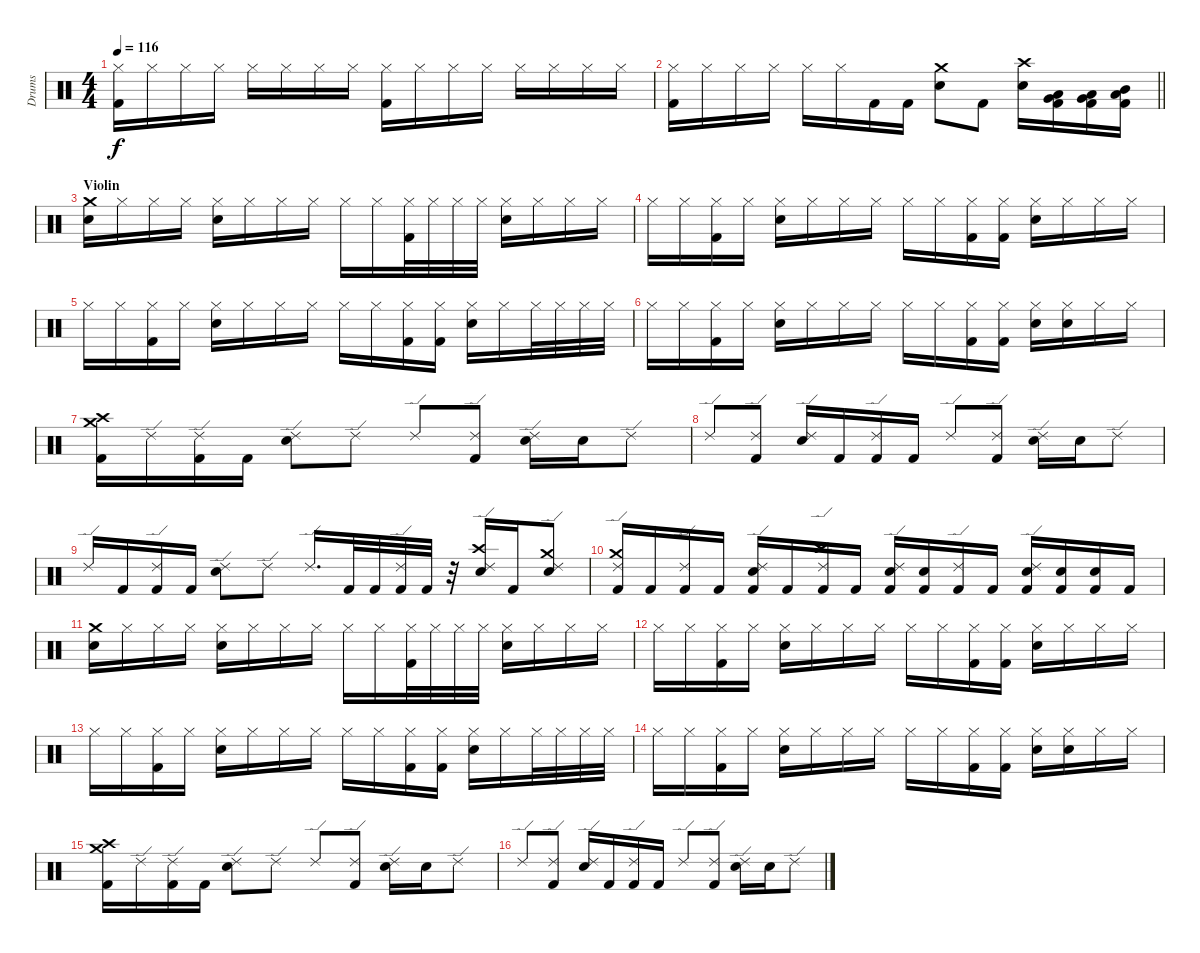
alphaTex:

\track ("Drums" "Drums") {instrument percussion}
\staff {score}
\articulation defaults
\ts (4 4)
\tempo 116
\clef neutral
\ks c
("Hi-Hat (closed)" "Kick (hit) 2").16{dy f} "Hi-Hat (closed)".16 "Hi-Hat (closed)".16 "Hi-Hat (closed)".16 "Hi-Hat (closed)".16 "Hi-Hat (closed)".16 "Hi-Hat (closed)".16 "Hi-Hat (closed)".16 ("Hi-Hat (closed)" "Kick (hit) 2").16 "Hi-Hat (closed)".16 "Hi-Hat (closed)".16 "Hi-Hat (closed)".16 "Hi-Hat (closed)".16 "Hi-Hat (closed)".16 "Hi-Hat (closed)".16 "Hi-Hat (closed)".16 |
\barLineRight lightlight
("Hi-Hat (closed)" "Kick (hit) 2").16 "Hi-Hat (closed)".16 "Hi-Hat (closed)".16 "Hi-Hat (closed)".16 "Hi-Hat (closed)".16 "Hi-Hat (closed)".16 "Kick (hit) 2".16 "Kick (hit) 2".16 ("Snare (hit) 2" "Crash medium (hit)").8 "Kick (hit) 2".8 ("Snare (hit) 2" "Crash high (hit)").16 ("Kick (hit) 2" "Very Low Tom (hit)" "Low Floor Tom (hit)").16 ("Kick (hit) 2" "Low Tom (hit)" "Very Low Tom (hit)").16 ("Kick (hit) 2" "Mid Tom (hit)" "Low Tom (hit)").16 |
\section ("" "Violin")
("Snare (hit) 2" "Crash medium (hit)").16 "Hi-Hat (closed)".16 "Hi-Hat (closed)".16 "Hi-Hat (closed)".16 ("Hi-Hat (closed)" "Snare (hit) 2").16 "Hi-Hat (closed)".16 "Hi-Hat (closed)".16 "Hi-Hat (closed)".16 "Hi-Hat (closed)".16 "Hi-Hat (closed)".16 ("Hi-Hat (closed)" "Kick (hit) 2").32 "Hi-Hat (closed)".32 "Hi-Hat (closed)".32 "Hi-Hat (closed)".32 ("Hi-Hat (closed)" "Snare (hit) 2").16 "Hi-Hat (closed)".16 "Hi-Hat (closed)".16 "Hi-Hat (closed)".16 |
"Hi-Hat (closed)".16 "Hi-Hat (closed)".16 ("Hi-Hat (closed)" "Kick (hit) 2").16 "Hi-Hat (closed)".16 ("Hi-Hat (closed)" "Snare (hit) 2").16 "Hi-Hat (closed)".16 "Hi-Hat (closed)".16 "Hi-Hat (closed)".16 "Hi-Hat (closed)".16 "Hi-Hat (closed)".16 ("Hi-Hat (closed)" "Kick (hit) 2").16 ("Hi-Hat (closed)" "Kick (hit) 2").16 ("Hi-Hat (closed)" "Snare (hit) 2").16 "Hi-Hat (closed)".16 "Hi-Hat (closed)".16 "Hi-Hat (closed)".16 |
"Hi-Hat (closed)".16 "Hi-Hat (closed)".16 ("Hi-Hat (closed)" "Kick (hit) 2").16 "Hi-Hat (closed)".16 ("Hi-Hat (closed)" "Snare (hit) 2").16 "Hi-Hat (closed)".16 "Hi-Hat (closed)".16 "Hi-Hat (closed)".16 "Hi-Hat (closed)".16 "Hi-Hat (closed)".16 ("Hi-Hat (closed)" "Kick (hit) 2").16 ("Hi-Hat (closed)" "Kick (hit) 2").16 ("Hi-Hat (closed)" "Snare (hit) 2").16 "Hi-Hat (closed)".16 "Hi-Hat (closed)".32 "Hi-Hat (closed)".32 "Hi-Hat (closed)".32 "Hi-Hat (closed)".32 |
"Hi-Hat (closed)".16 "Hi-Hat (closed)".16 ("Hi-Hat (closed)" "Kick (hit) 2").16 "Hi-Hat (closed)".16 ("Hi-Hat (closed)" "Snare (hit) 2").16 "Hi-Hat (closed)".16 "Hi-Hat (closed)".16 "Hi-Hat (closed)".16 "Hi-Hat (closed)".16 "Hi-Hat (closed)".16 ("Hi-Hat (closed)" "Kick (hit) 2").16 ("Hi-Hat (closed)" "Kick (hit) 2").16 ("Hi-Hat (closed)" "Snare (hit) 2").16 ("Hi-Hat (closed)" "Snare (hit) 2").16 "Hi-Hat (closed)".16 "Hi-Hat (closed)".16 |
("Kick (hit) 2" "Crash medium (hit)" "Crash high (hit)").16 "Ride (edge) 2".16 ("Ride (edge) 2" "Kick (hit) 2").16 "Kick (hit) 2".16 ("Ride (edge) 2" "Snare (hit) 2").8 "Ride (edge) 2".8 "Ride (edge) 2".8 ("Ride (edge) 2" "Kick (hit) 2").8 ("Ride (edge) 2" "Snare (hit) 2").16 "Snare (hit) 2".16 "Ride (edge) 2".8 |
"Ride (edge) 2".8 ("Ride (edge) 2" "Kick (hit) 2").8 ("Ride (edge) 2" "Snare (hit) 2").16 "Kick (hit) 2".16 ("Ride (edge) 2" "Kick (hit) 2").16 "Kick (hit) 2".16 "Ride (edge) 2".8 ("Ride (edge) 2" "Kick (hit) 2").8 ("Ride (edge) 2" "Snare (hit) 2").16 "Snare (hit) 2".16 "Ride (edge) 2".8 |
"Ride (edge) 2".16 "Kick (hit) 2".16 ("Ride (edge) 2" "Kick (hit) 2").16 "Kick (hit) 2".16 ("Ride (edge) 2" "Snare (hit) 2").8 "Ride (edge) 2".8 "Ride (edge) 2".16{d} "Kick (hit) 2".32 "Kick (hit) 2".32 ("Ride (edge) 2" "Kick (hit) 2").32 "Kick (hit) 2".32 r.32 ("Ride (edge) 2" "Snare (hit) 2" "Crash high (hit)").16 "Kick (hit) 2".16 ("Ride (edge) 2" "Snare (hit) 2" "Crash medium (hit)").8 |
("Ride (edge) 2" "Kick (hit) 2" "Crash medium (hit)").16 "Kick (hit) 2".16 ("Ride (edge) 2" "Kick (hit) 2").16 "Kick (hit) 2".16 ("Ride (edge) 2" "Kick (hit) 2" "Snare (hit) 2").16 "Kick (hit) 2".16 ("Ride (edge) 2" "Kick (hit) 2" "Crash high (hit)").16 "Kick (hit) 2".16 ("Ride (edge) 2" "Kick (hit) 2" "Snare (hit) 2").16 ("Kick (hit) 2" "Snare (hit) 2").16 ("Ride (edge) 2" "Kick (hit) 2").16 "Kick (hit) 2".16 ("Ride (edge) 2" "Kick (hit) 2" "Snare (hit) 2").16 ("Kick (hit) 2" "Snare (hit) 2").16 ("Kick (hit) 2" "Snare (hit) 2").16 "Kick (hit) 2".16 |
("Snare (hit) 2" "Crash medium (hit)").16 "Hi-Hat (closed)".16 "Hi-Hat (closed)".16 "Hi-Hat (closed)".16 ("Hi-Hat (closed)" "Snare (hit) 2").16 "Hi-Hat (closed)".16 "Hi-Hat (closed)".16 "Hi-Hat (closed)".16 "Hi-Hat (closed)".16 "Hi-Hat (closed)".16 ("Hi-Hat (closed)" "Kick (hit) 2").32 "Hi-Hat (closed)".32 "Hi-Hat (closed)".32 "Hi-Hat (closed)".32 ("Hi-Hat (closed)" "Snare (hit) 2").16 "Hi-Hat (closed)".16 "Hi-Hat (closed)".16 "Hi-Hat (closed)".16 |
"Hi-Hat (closed)".16 "Hi-Hat (closed)".16 ("Hi-Hat (closed)" "Kick (hit) 2").16 "Hi-Hat (closed)".16 ("Hi-Hat (closed)" "Snare (hit) 2").16 "Hi-Hat (closed)".16 "Hi-Hat (closed)".16 "Hi-Hat (closed)".16 "Hi-Hat (closed)".16 "Hi-Hat (closed)".16 ("Hi-Hat (closed)" "Kick (hit) 2").16 ("Hi-Hat (closed)" "Kick (hit) 2").16 ("Hi-Hat (closed)" "Snare (hit) 2").16 "Hi-Hat (closed)".16 "Hi-Hat (closed)".16 "Hi-Hat (closed)".16 |
"Hi-Hat (closed)".16 "Hi-Hat (closed)".16 ("Hi-Hat (closed)" "Kick (hit) 2").16 "Hi-Hat (closed)".16 ("Hi-Hat (closed)" "Snare (hit) 2").16 "Hi-Hat (closed)".16 "Hi-Hat (closed)".16 "Hi-Hat (closed)".16 "Hi-Hat (closed)".16 "Hi-Hat (closed)".16 ("Hi-Hat (closed)" "Kick (hit) 2").16 ("Hi-Hat (closed)" "Kick (hit) 2").16 ("Hi-Hat (closed)" "Snare (hit) 2").16 "Hi-Hat (closed)".16 "Hi-Hat (closed)".32 "Hi-Hat (closed)".32 "Hi-Hat (closed)".32 "Hi-Hat (closed)".32 |
"Hi-Hat (closed)".16 "Hi-Hat (closed)".16 ("Hi-Hat (closed)" "Kick (hit) 2").16 "Hi-Hat (closed)".16 ("Hi-Hat (closed)" "Snare (hit) 2").16 "Hi-Hat (closed)".16 "Hi-Hat (closed)".16 "Hi-Hat (closed)".16 "Hi-Hat (closed)".16 "Hi-Hat (closed)".16 ("Hi-Hat (closed)" "Kick (hit) 2").16 ("Hi-Hat (closed)" "Kick (hit) 2").16 ("Hi-Hat (closed)" "Snare (hit) 2").16 ("Hi-Hat (closed)" "Snare (hit) 2").16 "Hi-Hat (closed)".16 "Hi-Hat (closed)".16 |
("Kick (hit) 2" "Crash medium (hit)" "Crash high (hit)").16 "Ride (edge) 2".16 ("Ride (edge) 2" "Kick (hit) 2").16 "Kick (hit) 2".16 ("Ride (edge) 2" "Snare (hit) 2").8 "Ride (edge) 2".8 "Ride (edge) 2".8 ("Ride (edge) 2" "Kick (hit) 2").8 ("Ride (edge) 2" "Snare (hit) 2").16 "Snare (hit) 2".16 "Ride (edge) 2".8 |
"Ride (edge) 2".8 ("Ride (edge) 2" "Kick (hit) 2").8 ("Ride (edge) 2" "Snare (hit) 2").16 "Kick (hit) 2".16 ("Ride (edge) 2" "Kick (hit) 2").16 "Kick (hit) 2".16 "Ride (edge) 2".8 ("Ride (edge) 2" "Kick (hit) 2").8 ("Ride (edge) 2" "Snare (hit) 2").16 "Snare (hit) 2".16 "Ride (edge) 2".8
